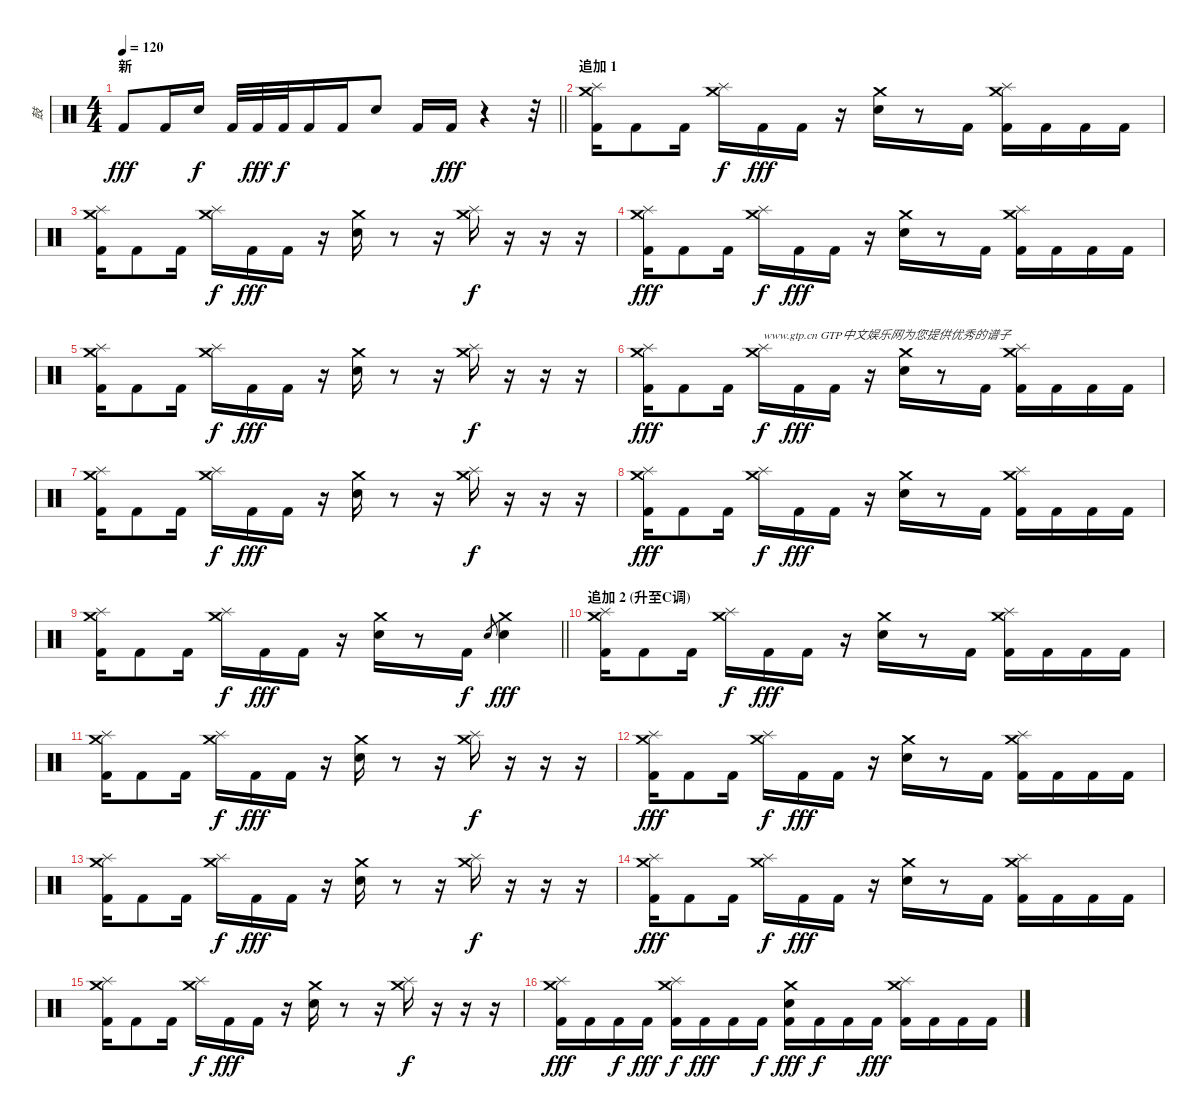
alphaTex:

\track ("鼓" "鼓") {instrument percussion}
\staff {score}
\articulation defaults
\ts (4 4)
\section ("" "新")
\tempo 120
\clef neutral
\barLineRight lightlight
\ks c "Kick (hit) 2".8{dy fff} "Kick (hit) 2".16 "Snare (hit) 2".16{dy f} "Kick (hit) 2".32 "Kick (hit) 2".32{dy fff} "Kick (hit) 2".32{dy f} "Kick (hit) 2".16 "Kick (hit) 2".16 "Snare (hit) 2".8 "Kick (hit) 2".16 "Kick (hit) 2".16{dy fff}
r.4 r.32 |
\section ("" "追加 1")
("Crash medium (hit)" "Splash (hit)" "Kick (hit) 2").16 "Kick (hit) 2".8 "Kick (hit) 2".16 ("Crash medium (hit)" "Splash (hit)").16{dy f} "Kick (hit) 2".16{dy fff} "Kick (hit) 2".16 r.16 ("Crash medium (hit)" "Snare (hit) 2").16 r.8 "Kick (hit) 2".16 ("Crash medium (hit)" "Splash (hit)" "Kick (hit) 2").16 "Kick (hit) 2".16 "Kick (hit) 2".16 "Kick (hit) 2".16 |
("Crash medium (hit)" "Splash (hit)" "Kick (hit) 2").16 "Kick (hit) 2".8 "Kick (hit) 2".16 ("Crash medium (hit)" "Splash (hit)").16{dy f} "Kick (hit) 2".16{dy fff} "Kick (hit) 2".16 r.16 ("Crash medium (hit)" "Snare (hit) 2").16 r.8 r.16 ("Crash medium (hit)" "Splash (hit)").16{dy f} r.16 r.16 r.16 |
("Crash medium (hit)" "Splash (hit)" "Kick (hit) 2").16{dy fff} "Kick (hit) 2".8 "Kick (hit) 2".16 ("Crash medium (hit)" "Splash (hit)").16{dy f} "Kick (hit) 2".16{dy fff} "Kick (hit) 2".16 r.16 ("Crash medium (hit)" "Snare (hit) 2").16 r.8 "Kick (hit) 2".16 ("Crash medium (hit)" "Splash (hit)" "Kick (hit) 2").16 "Kick (hit) 2".16 "Kick (hit) 2".16 "Kick (hit) 2".16 |
("Crash medium (hit)" "Splash (hit)" "Kick (hit) 2").16 "Kick (hit) 2".8 "Kick (hit) 2".16 ("Crash medium (hit)" "Splash (hit)").16{dy f} "Kick (hit) 2".16{dy fff} "Kick (hit) 2".16 r.16 ("Crash medium (hit)" "Snare (hit) 2").16 r.8 r.16 ("Crash medium (hit)" "Splash (hit)").16{dy f} r.16 r.16 r.16 |
("Crash medium (hit)" "Splash (hit)" "Kick (hit) 2").16{dy fff} "Kick (hit) 2".8 "Kick (hit) 2".16 ("Crash medium (hit)" "Splash (hit)").16{txt "www.gtp.cn GTP中文娱乐网为您提供优秀的谱子" dy f} "Kick (hit) 2".16{dy fff} "Kick (hit) 2".16 r.16 ("Crash medium (hit)" "Snare (hit) 2").16 r.8 "Kick (hit) 2".16 ("Crash medium (hit)" "Splash (hit)" "Kick (hit) 2").16 "Kick (hit) 2".16 "Kick (hit) 2".16 "Kick (hit) 2".16 |
("Crash medium (hit)" "Splash (hit)" "Kick (hit) 2").16 "Kick (hit) 2".8 "Kick (hit) 2".16 ("Crash medium (hit)" "Splash (hit)").16{dy f} "Kick (hit) 2".16{dy fff} "Kick (hit) 2".16 r.16 ("Crash medium (hit)" "Snare (hit) 2").16 r.8 r.16 ("Crash medium (hit)" "Splash (hit)").16{dy f} r.16 r.16 r.16 |
("Crash medium (hit)" "Splash (hit)" "Kick (hit) 2").16{dy fff} "Kick (hit) 2".8 "Kick (hit) 2".16 ("Crash medium (hit)" "Splash (hit)").16{dy f} "Kick (hit) 2".16{dy fff} "Kick (hit) 2".16 r.16 ("Crash medium (hit)" "Snare (hit) 2").16 r.8 "Kick (hit) 2".16 ("Crash medium (hit)" "Splash (hit)" "Kick (hit) 2").16 "Kick (hit) 2".16 "Kick (hit) 2".16 "Kick (hit) 2".16 |
\barLineRight lightlight
("Crash medium (hit)" "Splash (hit)" "Kick (hit) 2").16 "Kick (hit) 2".8 "Kick (hit) 2".16 ("Crash medium (hit)" "Splash (hit)").16{dy f} "Kick (hit) 2".16{dy fff} "Kick (hit) 2".16 r.16 ("Crash medium (hit)" "Snare (hit) 2").16 r.8 "Kick (hit) 2".16{dy f} "Snare (hit) 2".8{gr} ("Crash medium (hit)" "Snare (hit) 2").4{dy fff} |
\section ("" "追加 2 (升至C调)")
("Crash medium (hit)" "Splash (hit)" "Kick (hit) 2").16 "Kick (hit) 2".8 "Kick (hit) 2".16 ("Crash medium (hit)" "Splash (hit)").16{dy f} "Kick (hit) 2".16{dy fff} "Kick (hit) 2".16 r.16 ("Crash medium (hit)" "Snare (hit) 2").16 r.8 "Kick (hit) 2".16 ("Crash medium (hit)" "Splash (hit)" "Kick (hit) 2").16 "Kick (hit) 2".16 "Kick (hit) 2".16 "Kick (hit) 2".16 |
("Crash medium (hit)" "Splash (hit)" "Kick (hit) 2").16 "Kick (hit) 2".8 "Kick (hit) 2".16 ("Crash medium (hit)" "Splash (hit)").16{dy f} "Kick (hit) 2".16{dy fff} "Kick (hit) 2".16 r.16 ("Crash medium (hit)" "Snare (hit) 2").16 r.8 r.16 ("Crash medium (hit)" "Splash (hit)").16{dy f} r.16 r.16 r.16 |
("Crash medium (hit)" "Splash (hit)" "Kick (hit) 2").16{dy fff} "Kick (hit) 2".8 "Kick (hit) 2".16 ("Crash medium (hit)" "Splash (hit)").16{dy f} "Kick (hit) 2".16{dy fff} "Kick (hit) 2".16 r.16 ("Crash medium (hit)" "Snare (hit) 2").16 r.8 "Kick (hit) 2".16 ("Crash medium (hit)" "Splash (hit)" "Kick (hit) 2").16 "Kick (hit) 2".16 "Kick (hit) 2".16 "Kick (hit) 2".16 |
("Crash medium (hit)" "Splash (hit)" "Kick (hit) 2").16 "Kick (hit) 2".8 "Kick (hit) 2".16 ("Crash medium (hit)" "Splash (hit)").16{dy f} "Kick (hit) 2".16{dy fff} "Kick (hit) 2".16 r.16 ("Crash medium (hit)" "Snare (hit) 2").16 r.8 r.16 ("Crash medium (hit)" "Splash (hit)").16{dy f} r.16 r.16 r.16 |
("Crash medium (hit)" "Splash (hit)" "Kick (hit) 2").16{dy fff} "Kick (hit) 2".8 "Kick (hit) 2".16 ("Crash medium (hit)" "Splash (hit)").16{dy f} "Kick (hit) 2".16{dy fff} "Kick (hit) 2".16 r.16 ("Crash medium (hit)" "Snare (hit) 2").16 r.8 "Kick (hit) 2".16 ("Crash medium (hit)" "Splash (hit)" "Kick (hit) 2").16 "Kick (hit) 2".16 "Kick (hit) 2".16 "Kick (hit) 2".16 |
("Crash medium (hit)" "Splash (hit)" "Kick (hit) 2").16 "Kick (hit) 2".8 "Kick (hit) 2".16 ("Crash medium (hit)" "Splash (hit)").16{dy f} "Kick (hit) 2".16{dy fff} "Kick (hit) 2".16 r.16 ("Crash medium (hit)" "Snare (hit) 2").16 r.8 r.16 ("Crash medium (hit)" "Splash (hit)").16{dy f} r.16 r.16 r.16 |
("Crash medium (hit)" "Splash (hit)" "Kick (hit) 2").16{dy fff} "Kick (hit) 2".16 "Kick (hit) 2".16{dy f} "Kick (hit) 2".16{dy fff} ("Crash medium (hit)" "Splash (hit)" "Kick (hit) 2").16{dy f} "Kick (hit) 2".16{dy fff} "Kick (hit) 2".16 "Kick (hit) 2".16{dy f} ("Crash medium (hit)" "Snare (hit) 2" "Kick (hit) 2").16{dy fff} "Kick (hit) 2".16{dy f} "Kick (hit) 2".16 "Kick (hit) 2".16{dy fff} ("Crash medium (hit)" "Splash (hit)" "Kick (hit) 2").16 "Kick (hit) 2".16 "Kick (hit) 2".16 "Kick (hit) 2".16
